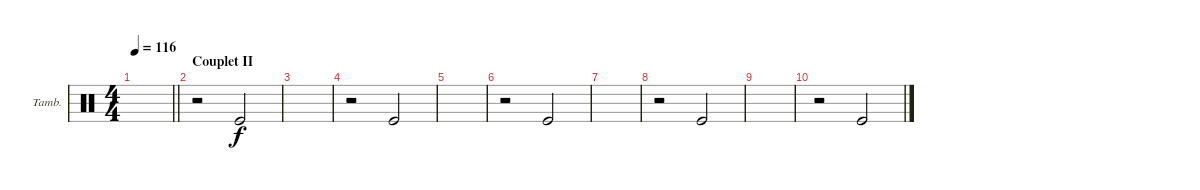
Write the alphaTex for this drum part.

\bracketExtendMode groupsimilarinstruments
\firstSystemTrackNameOrientation horizontal
\otherSystemsTrackNameOrientation horizontal
\track ("Ray Cooper" "Tamb.") {multiBarRest instrument percussion}
\staff {score}
\articulation defaults
\ts (4 4)
\tempo 116
\clef neutral
\barLineRight lightlight
\ks c
|
\section ("" "Couplet II")
r.2 "Kick (hit)".2 |
|
r.2 "Kick (hit)".2 |
|
r.2 "Kick (hit)".2 |
|
r.2 "Kick (hit)".2 |
|
r.2 "Kick (hit)".2
